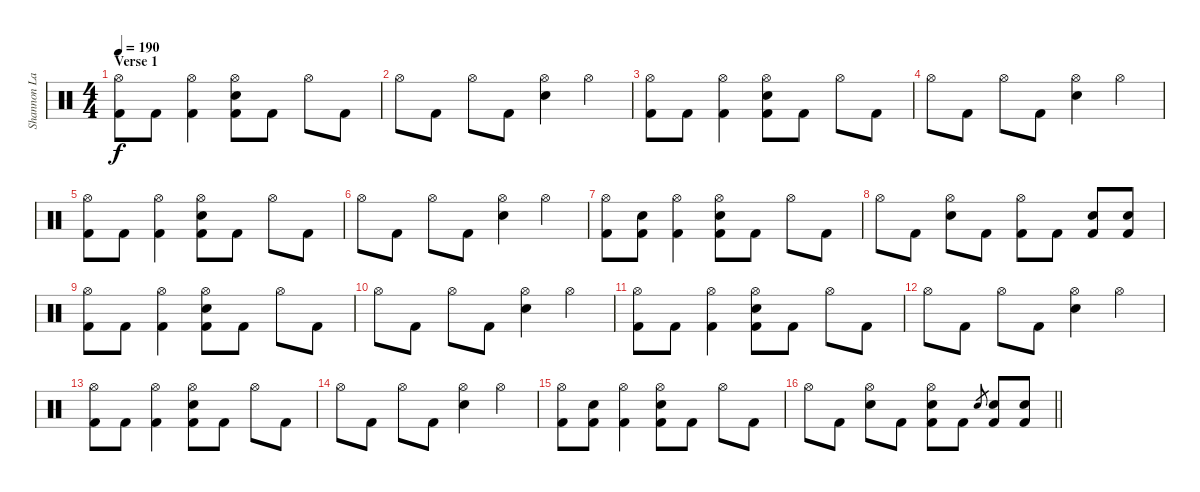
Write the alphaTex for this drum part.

\track ("Shannon Larkin" "Shannon La") {instrument percussion}
\staff {score}
\articulation defaults
\ts (4 4)
\section ("" "Verse 1")
\tempo 190
\clef neutral
\ks c
("Hi-Hat (open)" "Kick (hit) 2").8{dy f} "Kick (hit) 2".8 ("Hi-Hat (open)" "Kick (hit) 2").4 ("Hi-Hat (open)" "Snare (hit) 2" "Kick (hit) 2").8 "Kick (hit) 2".8 "Hi-Hat (open)".8 "Kick (hit) 2".8 |
"Hi-Hat (open)".8 "Kick (hit) 2".8 "Hi-Hat (open)".8 "Kick (hit) 2".8 ("Hi-Hat (open)" "Snare (hit) 2").4 "Hi-Hat (open)".4 |
("Hi-Hat (open)" "Kick (hit) 2").8 "Kick (hit) 2".8 ("Hi-Hat (open)" "Kick (hit) 2").4 ("Hi-Hat (open)" "Snare (hit) 2" "Kick (hit) 2").8 "Kick (hit) 2".8 "Hi-Hat (open)".8 "Kick (hit) 2".8 |
"Hi-Hat (open)".8 "Kick (hit) 2".8 "Hi-Hat (open)".8 "Kick (hit) 2".8 ("Hi-Hat (open)" "Snare (hit) 2").4 "Hi-Hat (open)".4 |
("Hi-Hat (open)" "Kick (hit) 2").8 "Kick (hit) 2".8 ("Hi-Hat (open)" "Kick (hit) 2").4 ("Hi-Hat (open)" "Snare (hit) 2" "Kick (hit) 2").8 "Kick (hit) 2".8 "Hi-Hat (open)".8 "Kick (hit) 2".8 |
"Hi-Hat (open)".8 "Kick (hit) 2".8 "Hi-Hat (open)".8 "Kick (hit) 2".8 ("Hi-Hat (open)" "Snare (hit) 2").4 "Hi-Hat (open)".4 |
("Hi-Hat (open)" "Kick (hit) 2").8 ("Snare (hit) 2" "Kick (hit) 2").8 ("Hi-Hat (open)" "Kick (hit) 2").4 ("Hi-Hat (open)" "Snare (hit) 2" "Kick (hit) 2").8 "Kick (hit) 2".8 "Hi-Hat (open)".8 "Kick (hit) 2".8 |
"Hi-Hat (open)".8 "Kick (hit) 2".8 ("Hi-Hat (open)" "Snare (hit) 2").8 "Kick (hit) 2".8 ("Hi-Hat (open)" "Kick (hit) 2").8 "Kick (hit) 2".8 ("Snare (hit) 2" "Kick (hit) 2").8 ("Snare (hit) 2" "Kick (hit) 2").8 |
("Hi-Hat (open)" "Kick (hit) 2").8 "Kick (hit) 2".8 ("Hi-Hat (open)" "Kick (hit) 2").4 ("Hi-Hat (open)" "Snare (hit) 2" "Kick (hit) 2").8 "Kick (hit) 2".8 "Hi-Hat (open)".8 "Kick (hit) 2".8 |
"Hi-Hat (open)".8 "Kick (hit) 2".8 "Hi-Hat (open)".8 "Kick (hit) 2".8 ("Hi-Hat (open)" "Snare (hit) 2").4 "Hi-Hat (open)".4 |
("Hi-Hat (open)" "Kick (hit) 2").8 "Kick (hit) 2".8 ("Hi-Hat (open)" "Kick (hit) 2").4 ("Hi-Hat (open)" "Snare (hit) 2" "Kick (hit) 2").8 "Kick (hit) 2".8 "Hi-Hat (open)".8 "Kick (hit) 2".8 |
"Hi-Hat (open)".8 "Kick (hit) 2".8 "Hi-Hat (open)".8 "Kick (hit) 2".8 ("Hi-Hat (open)" "Snare (hit) 2").4 "Hi-Hat (open)".4 |
("Hi-Hat (open)" "Kick (hit) 2").8 "Kick (hit) 2".8 ("Hi-Hat (open)" "Kick (hit) 2").4 ("Hi-Hat (open)" "Snare (hit) 2" "Kick (hit) 2").8 "Kick (hit) 2".8 "Hi-Hat (open)".8 "Kick (hit) 2".8 |
"Hi-Hat (open)".8 "Kick (hit) 2".8 "Hi-Hat (open)".8 "Kick (hit) 2".8 ("Hi-Hat (open)" "Snare (hit) 2").4 "Hi-Hat (open)".4 |
("Hi-Hat (open)" "Kick (hit) 2").8 ("Snare (hit) 2" "Kick (hit) 2").8 ("Hi-Hat (open)" "Kick (hit) 2").4 ("Hi-Hat (open)" "Snare (hit) 2" "Kick (hit) 2").8 "Kick (hit) 2".8 "Hi-Hat (open)".8 "Kick (hit) 2".8 |
\barLineRight lightlight "Hi-Hat (open)".8 "Kick (hit) 2".8
("Hi-Hat (open)" "Snare (hit) 2").8 "Kick (hit) 2".8 ("Hi-Hat (open)" "Snare (hit) 2" "Kick (hit) 2").8 "Kick (hit) 2".8 "Snare (hit) 2".8{gr} ("Snare (hit) 2" "Kick (hit) 2").8 ("Snare (hit) 2" "Kick (hit) 2").8
